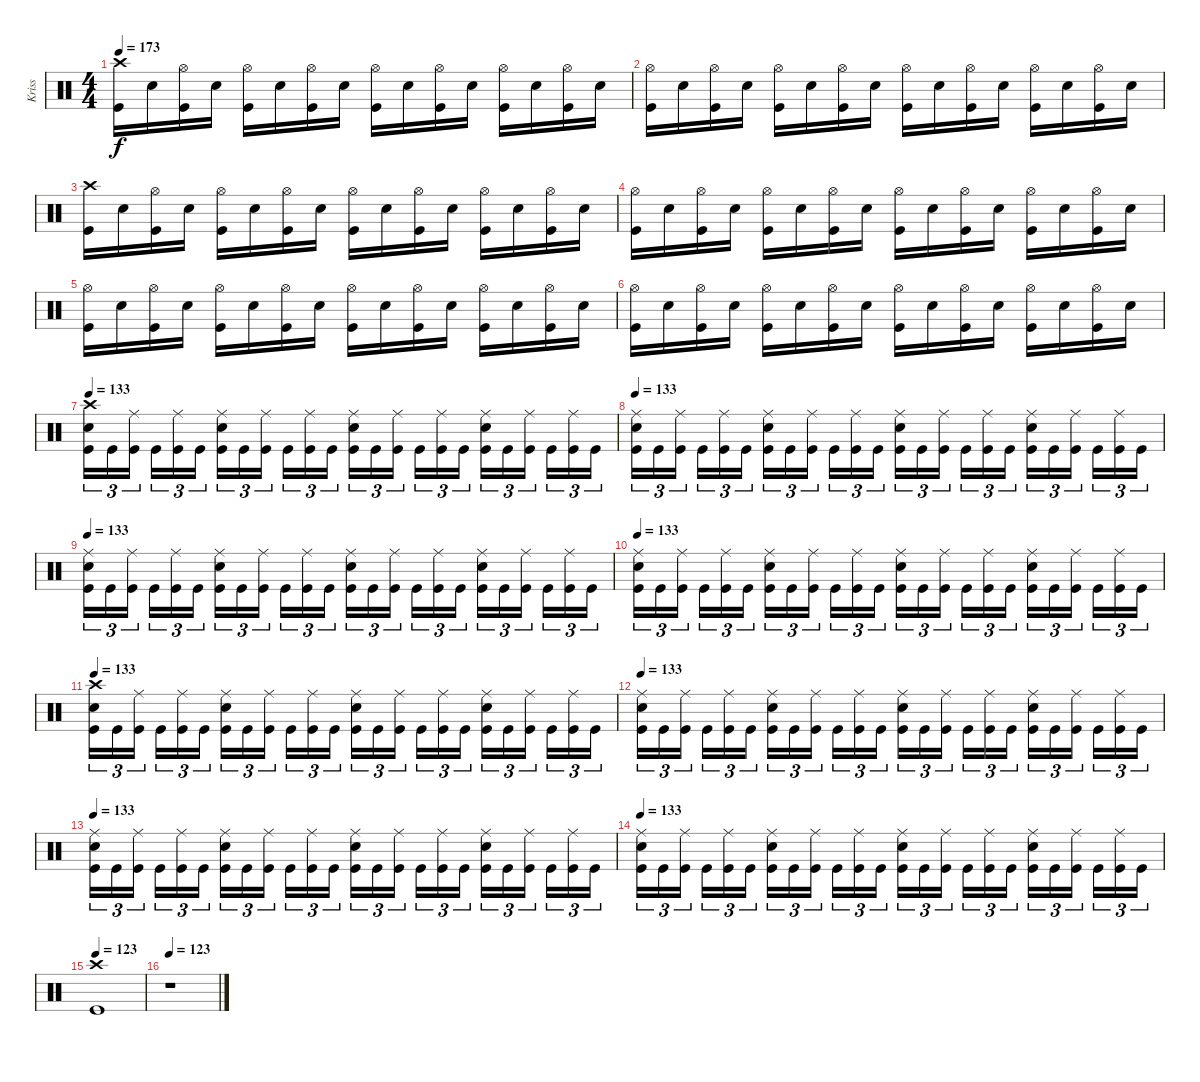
\track ("Kriss" "Kriss") {instrument percussion}
\staff {score}
\articulation defaults
\ts (4 4)
\tempo 173
\clef neutral
\ks c
("Crash high (hit)" "Kick (hit)").16{dy f} "Snare (hit) 2".16 ("Hi-Hat (open)" "Kick (hit)").16 "Snare (hit) 2".16 ("Hi-Hat (open)" "Kick (hit)").16 "Snare (hit) 2".16 ("Hi-Hat (open)" "Kick (hit)").16 "Snare (hit) 2".16 ("Hi-Hat (open)" "Kick (hit)").16 "Snare (hit) 2".16 ("Hi-Hat (open)" "Kick (hit)").16 "Snare (hit) 2".16 ("Hi-Hat (open)" "Kick (hit)").16 "Snare (hit) 2".16 ("Hi-Hat (open)" "Kick (hit)").16 "Snare (hit) 2".16 |
("Hi-Hat (open)" "Kick (hit)").16 "Snare (hit) 2".16 ("Hi-Hat (open)" "Kick (hit)").16 "Snare (hit) 2".16 ("Hi-Hat (open)" "Kick (hit)").16 "Snare (hit) 2".16 ("Hi-Hat (open)" "Kick (hit)").16 "Snare (hit) 2".16 ("Hi-Hat (open)" "Kick (hit)").16 "Snare (hit) 2".16 ("Hi-Hat (open)" "Kick (hit)").16 "Snare (hit) 2".16 ("Hi-Hat (open)" "Kick (hit)").16 "Snare (hit) 2".16 ("Hi-Hat (open)" "Kick (hit)").16 "Snare (hit) 2".16 |
("Crash high (hit)" "Kick (hit)").16 "Snare (hit) 2".16 ("Hi-Hat (open)" "Kick (hit)").16 "Snare (hit) 2".16 ("Hi-Hat (open)" "Kick (hit)").16 "Snare (hit) 2".16 ("Hi-Hat (open)" "Kick (hit)").16 "Snare (hit) 2".16 ("Hi-Hat (open)" "Kick (hit)").16 "Snare (hit) 2".16 ("Hi-Hat (open)" "Kick (hit)").16 "Snare (hit) 2".16 ("Hi-Hat (open)" "Kick (hit)").16 "Snare (hit) 2".16 ("Hi-Hat (open)" "Kick (hit)").16 "Snare (hit) 2".16 |
("Hi-Hat (open)" "Kick (hit)").16 "Snare (hit) 2".16 ("Hi-Hat (open)" "Kick (hit)").16 "Snare (hit) 2".16 ("Hi-Hat (open)" "Kick (hit)").16 "Snare (hit) 2".16 ("Hi-Hat (open)" "Kick (hit)").16 "Snare (hit) 2".16 ("Hi-Hat (open)" "Kick (hit)").16 "Snare (hit) 2".16 ("Hi-Hat (open)" "Kick (hit)").16 "Snare (hit) 2".16 ("Hi-Hat (open)" "Kick (hit)").16 "Snare (hit) 2".16 ("Hi-Hat (open)" "Kick (hit)").16 "Snare (hit) 2".16 |
("Hi-Hat (open)" "Kick (hit)").16 "Snare (hit) 2".16 ("Hi-Hat (open)" "Kick (hit)").16 "Snare (hit) 2".16 ("Hi-Hat (open)" "Kick (hit)").16 "Snare (hit) 2".16 ("Hi-Hat (open)" "Kick (hit)").16 "Snare (hit) 2".16 ("Hi-Hat (open)" "Kick (hit)").16 "Snare (hit) 2".16 ("Hi-Hat (open)" "Kick (hit)").16 "Snare (hit) 2".16 ("Hi-Hat (open)" "Kick (hit)").16 "Snare (hit) 2".16 ("Hi-Hat (open)" "Kick (hit)").16 "Snare (hit) 2".16 |
("Hi-Hat (open)" "Kick (hit)").16 "Snare (hit) 2".16 ("Hi-Hat (open)" "Kick (hit)").16 "Snare (hit) 2".16 ("Hi-Hat (open)" "Kick (hit)").16 "Snare (hit) 2".16 ("Hi-Hat (open)" "Kick (hit)").16 "Snare (hit) 2".16 ("Hi-Hat (open)" "Kick (hit)").16 "Snare (hit) 2".16 ("Hi-Hat (open)" "Kick (hit)").16 "Snare (hit) 2".16 ("Hi-Hat (open)" "Kick (hit)").16 "Snare (hit) 2".16 ("Hi-Hat (open)" "Kick (hit)").16 "Snare (hit) 2".16 |
\tempo 133
("Crash high (hit)" "Snare (hit) 2" "Kick (hit)").16{tu (3 2)} "Kick (hit)".16{tu (3 2)} ("Ride (middle)" "Kick (hit)").16{tu (3 2)} "Kick (hit)".16{tu (3 2)} ("Ride (middle)" "Kick (hit)").16{tu (3 2)} "Kick (hit)".16{tu (3 2)} ("Ride (middle)" "Snare (hit) 2" "Kick (hit)").16{tu (3 2)} "Kick (hit)".16{tu (3 2)} ("Ride (middle)" "Kick (hit)").16{tu (3 2)} "Kick (hit)".16{tu (3 2)} ("Ride (middle)" "Kick (hit)").16{tu (3 2)} "Kick (hit)".16{tu (3 2)} ("Ride (middle)" "Snare (hit) 2" "Kick (hit)").16{tu (3 2)} "Kick (hit)".16{tu (3 2)} ("Ride (middle)" "Kick (hit)").16{tu (3 2)} "Kick (hit)".16{tu (3 2)} ("Ride (middle)" "Kick (hit)").16{tu (3 2)} "Kick (hit)".16{tu (3 2)} ("Ride (middle)" "Snare (hit) 2" "Kick (hit)").16{tu (3 2)} "Kick (hit)".16{tu (3 2)} ("Ride (middle)" "Kick (hit)").16{tu (3 2)} "Kick (hit)".16{tu (3 2)} ("Ride (middle)" "Kick (hit)").16{tu (3 2)} "Kick (hit)".16{tu (3 2)} |
\tempo 133
("Ride (middle)" "Snare (hit) 2" "Kick (hit)").16{tu (3 2)} "Kick (hit)".16{tu (3 2)} ("Ride (middle)" "Kick (hit)").16{tu (3 2)} "Kick (hit)".16{tu (3 2)} ("Ride (middle)" "Kick (hit)").16{tu (3 2)} "Kick (hit)".16{tu (3 2)} ("Ride (middle)" "Snare (hit) 2" "Kick (hit)").16{tu (3 2)} "Kick (hit)".16{tu (3 2)} ("Ride (middle)" "Kick (hit)").16{tu (3 2)} "Kick (hit)".16{tu (3 2)} ("Ride (middle)" "Kick (hit)").16{tu (3 2)} "Kick (hit)".16{tu (3 2)} ("Ride (middle)" "Snare (hit) 2" "Kick (hit)").16{tu (3 2)} "Kick (hit)".16{tu (3 2)} ("Ride (middle)" "Kick (hit)").16{tu (3 2)} "Kick (hit)".16{tu (3 2)} ("Ride (middle)" "Kick (hit)").16{tu (3 2)} "Kick (hit)".16{tu (3 2)} ("Ride (middle)" "Snare (hit) 2" "Kick (hit)").16{tu (3 2)} "Kick (hit)".16{tu (3 2)} ("Ride (middle)" "Kick (hit)").16{tu (3 2)} "Kick (hit)".16{tu (3 2)} ("Ride (middle)" "Kick (hit)").16{tu (3 2)} "Kick (hit)".16{tu (3 2)} |
\tempo 133
("Ride (middle)" "Snare (hit) 2" "Kick (hit)").16{tu (3 2)} "Kick (hit)".16{tu (3 2)} ("Ride (middle)" "Kick (hit)").16{tu (3 2)} "Kick (hit)".16{tu (3 2)} ("Ride (middle)" "Kick (hit)").16{tu (3 2)} "Kick (hit)".16{tu (3 2)} ("Ride (middle)" "Snare (hit) 2" "Kick (hit)").16{tu (3 2)} "Kick (hit)".16{tu (3 2)} ("Ride (middle)" "Kick (hit)").16{tu (3 2)} "Kick (hit)".16{tu (3 2)} ("Ride (middle)" "Kick (hit)").16{tu (3 2)} "Kick (hit)".16{tu (3 2)} ("Ride (middle)" "Snare (hit) 2" "Kick (hit)").16{tu (3 2)} "Kick (hit)".16{tu (3 2)} ("Ride (middle)" "Kick (hit)").16{tu (3 2)} "Kick (hit)".16{tu (3 2)} ("Ride (middle)" "Kick (hit)").16{tu (3 2)} "Kick (hit)".16{tu (3 2)} ("Ride (middle)" "Snare (hit) 2" "Kick (hit)").16{tu (3 2)} "Kick (hit)".16{tu (3 2)} ("Ride (middle)" "Kick (hit)").16{tu (3 2)} "Kick (hit)".16{tu (3 2)} ("Ride (middle)" "Kick (hit)").16{tu (3 2)} "Kick (hit)".16{tu (3 2)} |
\tempo 133
("Ride (middle)" "Snare (hit) 2" "Kick (hit)").16{tu (3 2)} "Kick (hit)".16{tu (3 2)} ("Ride (middle)" "Kick (hit)").16{tu (3 2)} "Kick (hit)".16{tu (3 2)} ("Ride (middle)" "Kick (hit)").16{tu (3 2)} "Kick (hit)".16{tu (3 2)} ("Ride (middle)" "Snare (hit) 2" "Kick (hit)").16{tu (3 2)} "Kick (hit)".16{tu (3 2)} ("Ride (middle)" "Kick (hit)").16{tu (3 2)} "Kick (hit)".16{tu (3 2)} ("Ride (middle)" "Kick (hit)").16{tu (3 2)} "Kick (hit)".16{tu (3 2)} ("Ride (middle)" "Snare (hit) 2" "Kick (hit)").16{tu (3 2)} "Kick (hit)".16{tu (3 2)} ("Ride (middle)" "Kick (hit)").16{tu (3 2)} "Kick (hit)".16{tu (3 2)} ("Ride (middle)" "Kick (hit)").16{tu (3 2)} "Kick (hit)".16{tu (3 2)} ("Ride (middle)" "Snare (hit) 2" "Kick (hit)").16{tu (3 2)} "Kick (hit)".16{tu (3 2)} ("Ride (middle)" "Kick (hit)").16{tu (3 2)} "Kick (hit)".16{tu (3 2)} ("Ride (middle)" "Kick (hit)").16{tu (3 2)} "Kick (hit)".16{tu (3 2)} |
\tempo 133
("Crash high (hit)" "Snare (hit) 2" "Kick (hit)").16{tu (3 2)} "Kick (hit)".16{tu (3 2)} ("Ride (middle)" "Kick (hit)").16{tu (3 2)} "Kick (hit)".16{tu (3 2)} ("Ride (middle)" "Kick (hit)").16{tu (3 2)} "Kick (hit)".16{tu (3 2)} ("Ride (middle)" "Snare (hit) 2" "Kick (hit)").16{tu (3 2)} "Kick (hit)".16{tu (3 2)} ("Ride (middle)" "Kick (hit)").16{tu (3 2)} "Kick (hit)".16{tu (3 2)} ("Ride (middle)" "Kick (hit)").16{tu (3 2)} "Kick (hit)".16{tu (3 2)} ("Ride (middle)" "Snare (hit) 2" "Kick (hit)").16{tu (3 2)} "Kick (hit)".16{tu (3 2)} ("Ride (middle)" "Kick (hit)").16{tu (3 2)} "Kick (hit)".16{tu (3 2)} ("Ride (middle)" "Kick (hit)").16{tu (3 2)} "Kick (hit)".16{tu (3 2)} ("Ride (middle)" "Snare (hit) 2" "Kick (hit)").16{tu (3 2)} "Kick (hit)".16{tu (3 2)} ("Ride (middle)" "Kick (hit)").16{tu (3 2)} "Kick (hit)".16{tu (3 2)} ("Ride (middle)" "Kick (hit)").16{tu (3 2)} "Kick (hit)".16{tu (3 2)} |
\tempo 133
("Ride (middle)" "Snare (hit) 2" "Kick (hit)").16{tu (3 2)} "Kick (hit)".16{tu (3 2)} ("Ride (middle)" "Kick (hit)").16{tu (3 2)} "Kick (hit)".16{tu (3 2)} ("Ride (middle)" "Kick (hit)").16{tu (3 2)} "Kick (hit)".16{tu (3 2)} ("Ride (middle)" "Snare (hit) 2" "Kick (hit)").16{tu (3 2)} "Kick (hit)".16{tu (3 2)} ("Ride (middle)" "Kick (hit)").16{tu (3 2)} "Kick (hit)".16{tu (3 2)} ("Ride (middle)" "Kick (hit)").16{tu (3 2)} "Kick (hit)".16{tu (3 2)} ("Ride (middle)" "Snare (hit) 2" "Kick (hit)").16{tu (3 2)} "Kick (hit)".16{tu (3 2)} ("Ride (middle)" "Kick (hit)").16{tu (3 2)} "Kick (hit)".16{tu (3 2)} ("Ride (middle)" "Kick (hit)").16{tu (3 2)} "Kick (hit)".16{tu (3 2)} ("Ride (middle)" "Snare (hit) 2" "Kick (hit)").16{tu (3 2)} "Kick (hit)".16{tu (3 2)} ("Ride (middle)" "Kick (hit)").16{tu (3 2)} "Kick (hit)".16{tu (3 2)} ("Ride (middle)" "Kick (hit)").16{tu (3 2)} "Kick (hit)".16{tu (3 2)} |
\tempo 133
("Ride (middle)" "Snare (hit) 2" "Kick (hit)").16{tu (3 2)} "Kick (hit)".16{tu (3 2)} ("Ride (middle)" "Kick (hit)").16{tu (3 2)} "Kick (hit)".16{tu (3 2)} ("Ride (middle)" "Kick (hit)").16{tu (3 2)} "Kick (hit)".16{tu (3 2)} ("Ride (middle)" "Snare (hit) 2" "Kick (hit)").16{tu (3 2)} "Kick (hit)".16{tu (3 2)} ("Ride (middle)" "Kick (hit)").16{tu (3 2)} "Kick (hit)".16{tu (3 2)} ("Ride (middle)" "Kick (hit)").16{tu (3 2)} "Kick (hit)".16{tu (3 2)} ("Ride (middle)" "Snare (hit) 2" "Kick (hit)").16{tu (3 2)} "Kick (hit)".16{tu (3 2)} ("Ride (middle)" "Kick (hit)").16{tu (3 2)} "Kick (hit)".16{tu (3 2)} ("Ride (middle)" "Kick (hit)").16{tu (3 2)} "Kick (hit)".16{tu (3 2)} ("Ride (middle)" "Snare (hit) 2" "Kick (hit)").16{tu (3 2)} "Kick (hit)".16{tu (3 2)} ("Ride (middle)" "Kick (hit)").16{tu (3 2)} "Kick (hit)".16{tu (3 2)} ("Ride (middle)" "Kick (hit)").16{tu (3 2)} "Kick (hit)".16{tu (3 2)} |
\tempo 133
("Ride (middle)" "Snare (hit) 2" "Kick (hit)").16{tu (3 2)} "Kick (hit)".16{tu (3 2)} ("Ride (middle)" "Kick (hit)").16{tu (3 2)} "Kick (hit)".16{tu (3 2)} ("Ride (middle)" "Kick (hit)").16{tu (3 2)} "Kick (hit)".16{tu (3 2)} ("Ride (middle)" "Snare (hit) 2" "Kick (hit)").16{tu (3 2)} "Kick (hit)".16{tu (3 2)} ("Ride (middle)" "Kick (hit)").16{tu (3 2)} "Kick (hit)".16{tu (3 2)} ("Ride (middle)" "Kick (hit)").16{tu (3 2)} "Kick (hit)".16{tu (3 2)} ("Ride (middle)" "Snare (hit) 2" "Kick (hit)").16{tu (3 2)} "Kick (hit)".16{tu (3 2)} ("Ride (middle)" "Kick (hit)").16{tu (3 2)} "Kick (hit)".16{tu (3 2)} ("Ride (middle)" "Kick (hit)").16{tu (3 2)} "Kick (hit)".16{tu (3 2)} ("Ride (middle)" "Snare (hit) 2" "Kick (hit)").16{tu (3 2)} "Kick (hit)".16{tu (3 2)} ("Ride (middle)" "Kick (hit)").16{tu (3 2)} "Kick (hit)".16{tu (3 2)} ("Ride (middle)" "Kick (hit)").16{tu (3 2)} "Kick (hit)".16{tu (3 2)} |
\tempo 123
("Crash high (hit)" "Kick (hit)").1 |
\tempo 123
r.1
